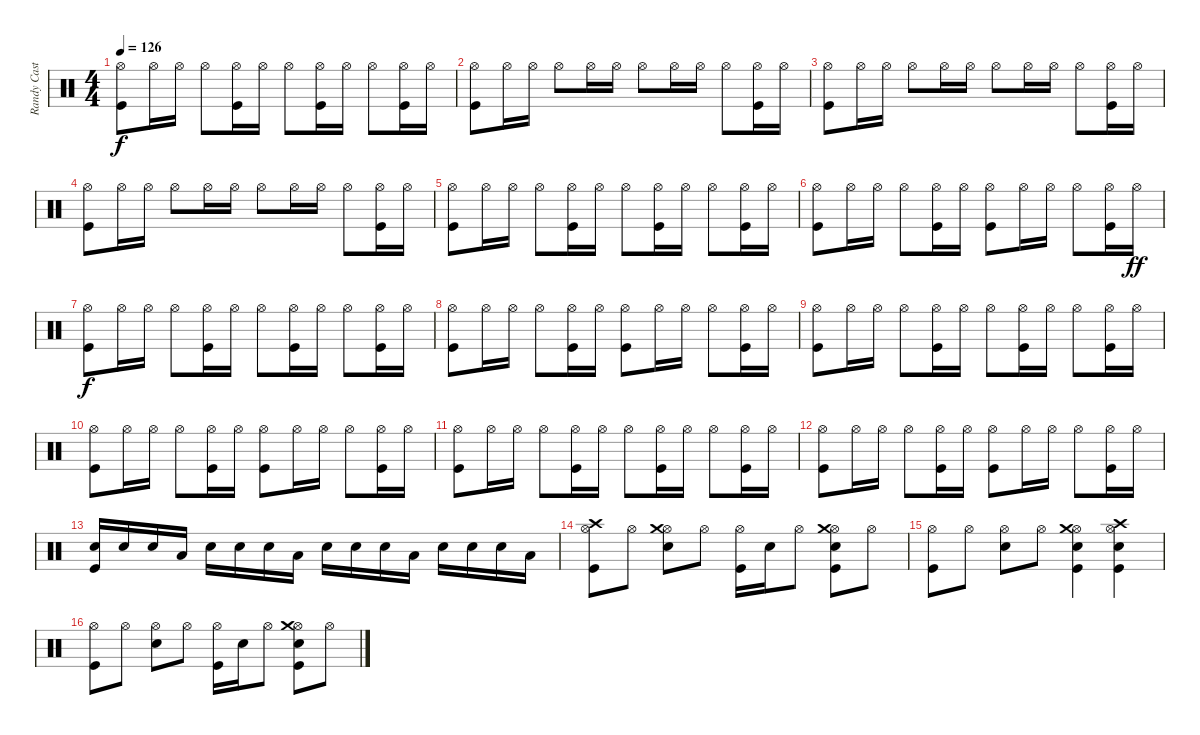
\track ("Randy Castillo" "Randy Cast") {instrument percussion}
\staff {score}
\articulation defaults
\ts (4 4)
\tempo 126
\clef neutral
\ks c
("Kick (hit)" "Hi-Hat (open)").8{dy f} "Hi-Hat (open)".16 "Hi-Hat (open)".16 "Hi-Hat (open)".8 ("Kick (hit)" "Hi-Hat (open)").16 "Hi-Hat (open)".16 "Hi-Hat (open)".8 ("Kick (hit)" "Hi-Hat (open)").16 "Hi-Hat (open)".16 "Hi-Hat (open)".8 ("Kick (hit)" "Hi-Hat (open)").16 "Hi-Hat (open)".16 |
("Kick (hit)" "Hi-Hat (open)").8 "Hi-Hat (open)".16 "Hi-Hat (open)".16 "Hi-Hat (open)".8 "Hi-Hat (open)".16 "Hi-Hat (open)".16 "Hi-Hat (open)".8 "Hi-Hat (open)".16 "Hi-Hat (open)".16 "Hi-Hat (open)".8 ("Kick (hit)" "Hi-Hat (open)").16 "Hi-Hat (open)".16 |
("Kick (hit)" "Hi-Hat (open)").8 "Hi-Hat (open)".16 "Hi-Hat (open)".16 "Hi-Hat (open)".8 "Hi-Hat (open)".16 "Hi-Hat (open)".16 "Hi-Hat (open)".8 "Hi-Hat (open)".16 "Hi-Hat (open)".16 "Hi-Hat (open)".8 ("Kick (hit)" "Hi-Hat (open)").16 "Hi-Hat (open)".16 |
("Kick (hit)" "Hi-Hat (open)").8 "Hi-Hat (open)".16 "Hi-Hat (open)".16 "Hi-Hat (open)".8 "Hi-Hat (open)".16 "Hi-Hat (open)".16 "Hi-Hat (open)".8 "Hi-Hat (open)".16 "Hi-Hat (open)".16 "Hi-Hat (open)".8 ("Kick (hit)" "Hi-Hat (open)").16 "Hi-Hat (open)".16 |
("Kick (hit)" "Hi-Hat (open)").8 "Hi-Hat (open)".16 "Hi-Hat (open)".16 "Hi-Hat (open)".8 ("Kick (hit)" "Hi-Hat (open)").16 "Hi-Hat (open)".16 "Hi-Hat (open)".8 ("Kick (hit)" "Hi-Hat (open)").16 "Hi-Hat (open)".16 "Hi-Hat (open)".8 ("Kick (hit)" "Hi-Hat (open)").16 "Hi-Hat (open)".16 |
("Kick (hit)" "Hi-Hat (open)").8 "Hi-Hat (open)".16 "Hi-Hat (open)".16 "Hi-Hat (open)".8 ("Kick (hit)" "Hi-Hat (open)").16 "Hi-Hat (open)".16 ("Kick (hit)" "Hi-Hat (open)").8 "Hi-Hat (open)".16 "Hi-Hat (open)".16 "Hi-Hat (open)".8 ("Kick (hit)" "Hi-Hat (open)").16 "Hi-Hat (open)".16{dy ff} |
("Kick (hit)" "Hi-Hat (open)").8{dy f} "Hi-Hat (open)".16 "Hi-Hat (open)".16 "Hi-Hat (open)".8 ("Kick (hit)" "Hi-Hat (open)").16 "Hi-Hat (open)".16 "Hi-Hat (open)".8 ("Kick (hit)" "Hi-Hat (open)").16 "Hi-Hat (open)".16 "Hi-Hat (open)".8 ("Kick (hit)" "Hi-Hat (open)").16 "Hi-Hat (open)".16 |
("Kick (hit)" "Hi-Hat (open)").8 "Hi-Hat (open)".16 "Hi-Hat (open)".16 "Hi-Hat (open)".8 ("Kick (hit)" "Hi-Hat (open)").16 "Hi-Hat (open)".16 ("Kick (hit)" "Hi-Hat (open)").8 "Hi-Hat (open)".16 "Hi-Hat (open)".16 "Hi-Hat (open)".8 ("Kick (hit)" "Hi-Hat (open)").16 "Hi-Hat (open)".16 |
("Kick (hit)" "Hi-Hat (open)").8 "Hi-Hat (open)".16 "Hi-Hat (open)".16 "Hi-Hat (open)".8 ("Kick (hit)" "Hi-Hat (open)").16 "Hi-Hat (open)".16 "Hi-Hat (open)".8 ("Kick (hit)" "Hi-Hat (open)").16 "Hi-Hat (open)".16 "Hi-Hat (open)".8 ("Kick (hit)" "Hi-Hat (open)").16 "Hi-Hat (open)".16 |
("Kick (hit)" "Hi-Hat (open)").8 "Hi-Hat (open)".16 "Hi-Hat (open)".16 "Hi-Hat (open)".8 ("Kick (hit)" "Hi-Hat (open)").16 "Hi-Hat (open)".16 ("Kick (hit)" "Hi-Hat (open)").8 "Hi-Hat (open)".16 "Hi-Hat (open)".16 "Hi-Hat (open)".8 ("Kick (hit)" "Hi-Hat (open)").16 "Hi-Hat (open)".16 |
("Kick (hit)" "Hi-Hat (open)").8 "Hi-Hat (open)".16 "Hi-Hat (open)".16 "Hi-Hat (open)".8 ("Kick (hit)" "Hi-Hat (open)").16 "Hi-Hat (open)".16 "Hi-Hat (open)".8 ("Kick (hit)" "Hi-Hat (open)").16 "Hi-Hat (open)".16 "Hi-Hat (open)".8 ("Kick (hit)" "Hi-Hat (open)").16 "Hi-Hat (open)".16 |
("Kick (hit)" "Hi-Hat (open)").8 "Hi-Hat (open)".16 "Hi-Hat (open)".16 "Hi-Hat (open)".8 ("Kick (hit)" "Hi-Hat (open)").16 "Hi-Hat (open)".16 ("Kick (hit)" "Hi-Hat (open)").8 "Hi-Hat (open)".16 "Hi-Hat (open)".16 "Hi-Hat (open)".8 ("Kick (hit)" "Hi-Hat (open)").16 "Hi-Hat (open)".16 |
("Kick (hit)" "Snare (hit) 2").16 "Snare (hit) 2".16 "Snare (hit) 2".16 "Low Tom (hit)".16 "Snare (hit) 2".16 "Snare (hit) 2".16 "Snare (hit) 2".16 "Low Tom (hit)".16 "Snare (hit) 2".16 "Snare (hit) 2".16 "Snare (hit) 2".16 "Low Tom (hit)".16 "Snare (hit) 2".16 "Snare (hit) 2".16 "Snare (hit) 2".16 "Low Tom (hit)".16 |
("Kick (hit)" "Hi-Hat (open)" "Crash high (hit)").8 "Hi-Hat (open)".8 ("Snare (hit) 2" "Hi-Hat (open)" "Crash medium (hit)").8 "Hi-Hat (open)".8 ("Kick (hit)" "Hi-Hat (open)").16 "Snare (hit) 2".16 "Hi-Hat (open)".8 ("Kick (hit)" "Snare (hit) 2" "Hi-Hat (open)" "Crash medium (hit)").8 "Hi-Hat (open)".8 |
("Kick (hit)" "Hi-Hat (open)").8 "Hi-Hat (open)".8 ("Snare (hit) 2" "Hi-Hat (open)").8 "Hi-Hat (open)".8 ("Kick (hit)" "Snare (hit) 2" "Hi-Hat (open)" "Crash medium (hit)").4 ("Kick (hit)" "Snare (hit) 2" "Hi-Hat (open)" "Crash high (hit)").4 |
("Kick (hit)" "Hi-Hat (open)").8 "Hi-Hat (open)".8 ("Snare (hit) 2" "Hi-Hat (open)").8 "Hi-Hat (open)".8 ("Kick (hit)" "Hi-Hat (open)").16 "Snare (hit) 2".16 "Hi-Hat (open)".8 ("Kick (hit)" "Snare (hit) 2" "Hi-Hat (open)" "Crash medium (hit)").8 "Hi-Hat (open)".8
